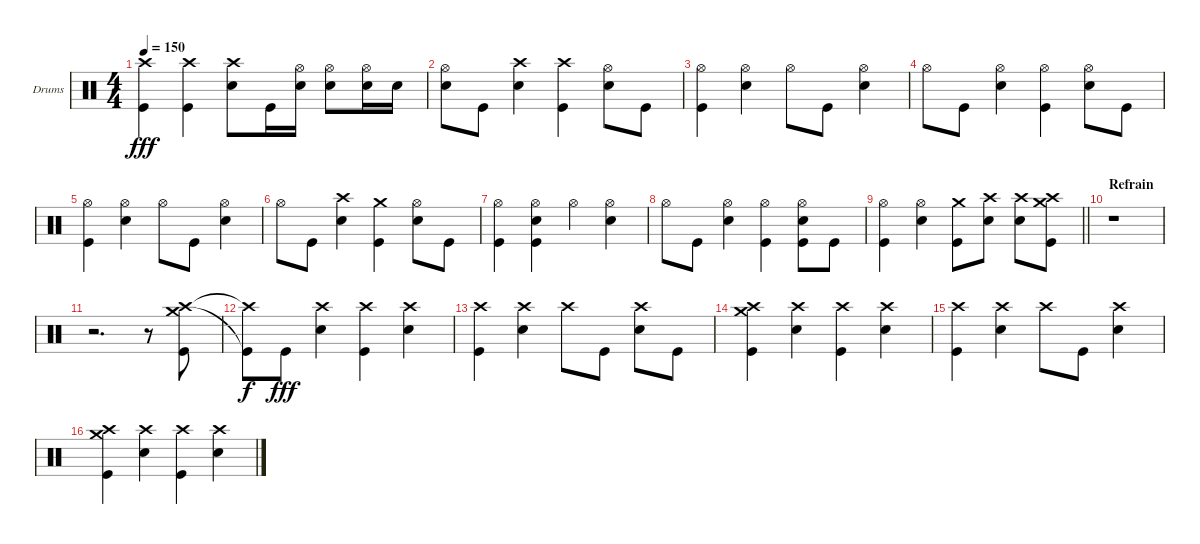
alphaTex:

\bracketExtendMode groupsimilarinstruments
\firstSystemTrackNameOrientation horizontal
\otherSystemsTrackNameOrientation horizontal
\track ("Drumkit" "Drums") {instrument percussion}
\staff {score}
\articulation defaults
\ts (4 4)
\tempo 150
\clef neutral
\ks c
("Crash high (hit)" "Kick (hit)").4{dy fff} ("Crash high (hit)" "Kick (hit)").4 ("Crash high (hit)" "Snare (hit) 2").8 "Kick (hit)".16 ("Hi-Hat (open)" "Snare (hit) 2").16 ("Hi-Hat (open)" "Snare (hit) 2").8 ("Hi-Hat (open)" "Snare (hit) 2").16 "Snare (hit) 2".16 |
("Hi-Hat (open)" "Snare (hit) 2").8 "Kick (hit)".8 ("Crash high (hit)" "Snare (hit) 2").4 ("Crash high (hit)" "Kick (hit)").4 ("Hi-Hat (open)" "Snare (hit) 2").8 "Kick (hit)".8 |
("Hi-Hat (open)" "Kick (hit)").4 ("Hi-Hat (open)" "Snare (hit) 2").4 "Hi-Hat (open)".8 "Kick (hit)".8 ("Hi-Hat (open)" "Snare (hit) 2").4 |
"Hi-Hat (open)".8 "Kick (hit)".8 ("Hi-Hat (open)" "Snare (hit) 2").4 ("Hi-Hat (open)" "Kick (hit)").4 ("Hi-Hat (open)" "Snare (hit) 2").8 "Kick (hit)".8 |
("Hi-Hat (open)" "Kick (hit)").4 ("Hi-Hat (open)" "Snare (hit) 2").4 "Hi-Hat (open)".8 "Kick (hit)".8 ("Hi-Hat (open)" "Snare (hit) 2").4 |
"Hi-Hat (open)".8 "Kick (hit)".8 ("Crash high (hit)" "Snare (hit) 2").4 ("Crash medium (hit)" "Kick (hit)").4 ("Hi-Hat (open)" "Snare (hit) 2").8 "Kick (hit)".8 |
("Hi-Hat (open)" "Kick (hit)").4 ("Hi-Hat (open)" "Snare (hit) 2" "Kick (hit)").4 "Hi-Hat (open)".4 ("Hi-Hat (open)" "Snare (hit) 2").4 |
"Hi-Hat (open)".8 "Kick (hit)".8 ("Hi-Hat (open)" "Snare (hit) 2").4 ("Hi-Hat (open)" "Kick (hit)").4 ("Hi-Hat (open)" "Snare (hit) 2" "Kick (hit)").8 "Kick (hit)".8 |
\barLineRight lightlight
("Hi-Hat (open)" "Kick (hit)").4 ("Hi-Hat (open)" "Snare (hit) 2").4 ("Crash medium (hit)" "Kick (hit)").8 ("Crash high (hit)" "Snare (hit) 2").8 ("Crash high (hit)" "Snare (hit) 2").8 ("Crash high (hit)" "Crash medium (hit)" "Kick (hit)").8 |
\section ("" "Refrain")
r.1 |
r.2{d} r.8 ("Crash high (hit)" "Crash medium (hit)" "Kick (hit)").8 |
("Crash high (hit)"{t} "Kick (hit)"{t}).8{dy f} "Kick (hit)".8{dy fff} ("Crash high (hit)" "Snare (hit) 2").4 ("Crash high (hit)" "Kick (hit)").4 ("Crash high (hit)" "Snare (hit) 2").4 |
("Crash high (hit)" "Kick (hit)").4 ("Crash high (hit)" "Snare (hit) 2").4 "Crash high (hit)".8 "Kick (hit)".8 ("Crash high (hit)" "Snare (hit) 2").8 "Kick (hit)".8 |
("Crash high (hit)" "Crash medium (hit)" "Kick (hit)").4 ("Crash high (hit)" "Snare (hit) 2").4 ("Crash high (hit)" "Kick (hit)").4 ("Crash high (hit)" "Snare (hit) 2").4 |
("Crash high (hit)" "Kick (hit)").4 ("Crash high (hit)" "Snare (hit) 2").4 "Crash high (hit)".8 "Kick (hit)".8 ("Crash high (hit)" "Snare (hit) 2").4 |
("Crash high (hit)" "Crash medium (hit)" "Kick (hit)").4 ("Crash high (hit)" "Snare (hit) 2").4 ("Crash high (hit)" "Kick (hit)").4 ("Crash high (hit)" "Snare (hit) 2").4
